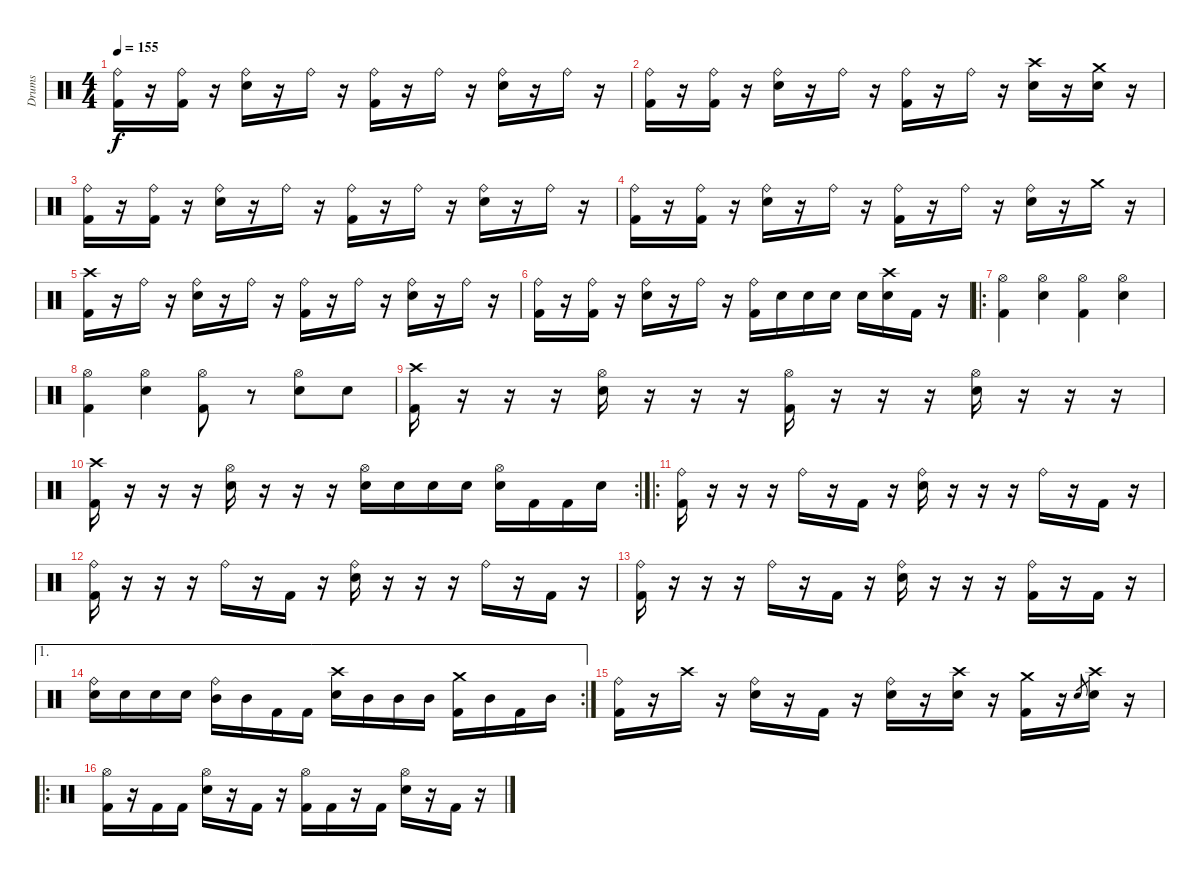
\track ("Drums" "Drums") {instrument percussion}
\staff {score}
\articulation defaults
\ts (4 4)
\tempo 155
\clef neutral
\ks c
("Ride (bell)" "Kick (hit) 2").16{dy f} r.16 ("Ride (bell)" "Kick (hit) 2").16 r.16 ("Ride (bell)" "Electric Snare (hit)").16 r.16 "Ride (bell)".16 r.16 ("Ride (bell)" "Kick (hit) 2").16 r.16 "Ride (bell)".16 r.16 ("Ride (bell)" "Electric Snare (hit)").16 r.16 "Ride (bell)".16 r.16 |
("Ride (bell)" "Kick (hit) 2").16 r.16 ("Ride (bell)" "Kick (hit) 2").16 r.16 ("Ride (bell)" "Electric Snare (hit)").16 r.16 "Ride (bell)".16 r.16 ("Ride (bell)" "Kick (hit) 2").16 r.16 "Ride (bell)".16 r.16 ("Crash high (hit)" "Electric Snare (hit)").16 r.16 ("Crash medium (hit)" "Electric Snare (hit)").16 r.16 |
("Ride (bell)" "Kick (hit) 2").16 r.16 ("Ride (bell)" "Kick (hit) 2").16 r.16 ("Ride (bell)" "Electric Snare (hit)").16 r.16 "Ride (bell)".16 r.16 ("Ride (bell)" "Kick (hit) 2").16 r.16 "Ride (bell)".16 r.16 ("Ride (bell)" "Electric Snare (hit)").16 r.16 "Ride (bell)".16 r.16 |
("Ride (bell)" "Kick (hit) 2").16 r.16 ("Ride (bell)" "Kick (hit) 2").16 r.16 ("Ride (bell)" "Electric Snare (hit)").16 r.16 "Ride (bell)".16 r.16 ("Ride (bell)" "Kick (hit) 2").16 r.16 "Ride (bell)".16 r.16 ("Ride (bell)" "Electric Snare (hit)").16 r.16 "Crash medium (hit)".16 r.16 |
("Crash high (hit)" "Kick (hit) 2").16 r.16 "Ride (bell)".16 r.16 ("Ride (bell)" "Electric Snare (hit)").16 r.16 "Ride (bell)".16 r.16 ("Ride (bell)" "Kick (hit) 2").16 r.16 "Ride (bell)".16 r.16 ("Ride (bell)" "Electric Snare (hit)").16 r.16 "Ride (bell)".16 r.16 |
("Ride (bell)" "Kick (hit) 2").16 r.16 ("Ride (bell)" "Kick (hit) 2").16 r.16 ("Ride (bell)" "Electric Snare (hit)").16 r.16 "Ride (bell)".16 r.16 ("Ride (bell)" "Kick (hit) 2").16 "Electric Snare (hit)".16 "Electric Snare (hit)".16 "Electric Snare (hit)".16 "Electric Snare (hit)".16 ("Crash high (hit)" "Electric Snare (hit)").16 "Kick (hit) 2".16 r.16 |
\ro
("Hi-Hat (open)" "Kick (hit) 2").4 ("Hi-Hat (open)" "Electric Snare (hit)").4 ("Hi-Hat (open)" "Kick (hit) 2").4 ("Hi-Hat (open)" "Electric Snare (hit)").4 |
("Hi-Hat (open)" "Kick (hit) 2").4 ("Hi-Hat (open)" "Electric Snare (hit)").4 ("Hi-Hat (open)" "Kick (hit) 2").8 r.8 ("Hi-Hat (open)" "Electric Snare (hit)").8 "Electric Snare (hit)".8 |
("Crash high (hit)" "Kick (hit) 2").16 r.16 r.16 r.16 ("Hi-Hat (open)" "Electric Snare (hit)").16 r.16 r.16 r.16 ("Hi-Hat (open)" "Kick (hit) 2").16 r.16 r.16 r.16 ("Hi-Hat (open)" "Electric Snare (hit)").16 r.16 r.16 r.16 |
\rc 2
("Crash high (hit)" "Kick (hit) 2").16 r.16 r.16 r.16 ("Hi-Hat (open)" "Electric Snare (hit)").16 r.16 r.16 r.16 ("Hi-Hat (open)" "Electric Snare (hit)").16 "Electric Snare (hit)".16 "Electric Snare (hit)".16 "Electric Snare (hit)".16 ("Hi-Hat (open)" "Electric Snare (hit)").16 "Kick (hit) 2".16 "Kick (hit) 2".16 "Electric Snare (hit)".16 |
\ro
("Ride (bell)" "Kick (hit) 2").16 r.16 r.16 r.16 "Ride (bell)".16 r.16 "Kick (hit) 2".16 r.16 ("Ride (bell)" "Electric Snare (hit)").16 r.16 r.16 r.16 "Ride (bell)".16 r.16 "Kick (hit) 2".16 r.16 |
("Ride (bell)" "Kick (hit) 2").16 r.16 r.16 r.16 "Ride (bell)".16 r.16 "Kick (hit) 2".16 r.16 ("Ride (bell)" "Electric Snare (hit)").16 r.16 r.16 r.16 "Ride (bell)".16 r.16 "Kick (hit) 2".16 r.16 |
("Ride (bell)" "Kick (hit) 2").16 r.16 r.16 r.16 "Ride (bell)".16 r.16 "Kick (hit) 2".16 r.16 ("Ride (bell)" "Electric Snare (hit)").16 r.16 r.16 r.16 ("Ride (bell)" "Kick (hit) 2").16 r.16 "Kick (hit) 2".16 r.16 |
\ae 1
\rc 2
("Ride (bell)" "Electric Snare (hit)").16 "Electric Snare (hit)".16 "Electric Snare (hit)".16 "Electric Snare (hit)".16 ("Ride (bell)" "Mid Tom (hit)").16 "Mid Tom (hit)".16 "Kick (hit) 2".16 "Kick (hit) 2".16 ("Crash high (hit)" "Electric Snare (hit)").16 "Mid Tom (hit)".16 "Mid Tom (hit)".16 "Mid Tom (hit)".16 ("Crash medium (hit)" "Kick (hit) 2").16 "Mid Tom (hit)".16 "Kick (hit) 2".16 "Mid Tom (hit)".16 |
("Ride (bell)" "Kick (hit) 2").16 r.16 "Crash high (hit)".16 r.16 ("Ride (bell)" "Electric Snare (hit)").16 r.16 "Kick (hit) 2".16 r.16 ("Ride (bell)" "Electric Snare (hit)").16 r.16 ("Crash high (hit)" "Electric Snare (hit)").16 r.16 ("Crash medium (hit)" "Kick (hit) 2").16 r.16 "Electric Snare (hit)".8{gr} ("Crash high (hit)" "Electric Snare (hit)").16 r.16 |
\ro
("Hi-Hat (open)" "Kick (hit) 2").16 r.16 "Kick (hit) 2".16 "Kick (hit) 2".16 ("Hi-Hat (open)" "Electric Snare (hit)").16 r.16 "Kick (hit) 2".16 r.16 ("Hi-Hat (open)" "Kick (hit) 2").16 "Kick (hit) 2".16 r.16 "Kick (hit) 2".16 ("Hi-Hat (open)" "Electric Snare (hit)").16 r.16 "Kick (hit) 2".16 r.16
